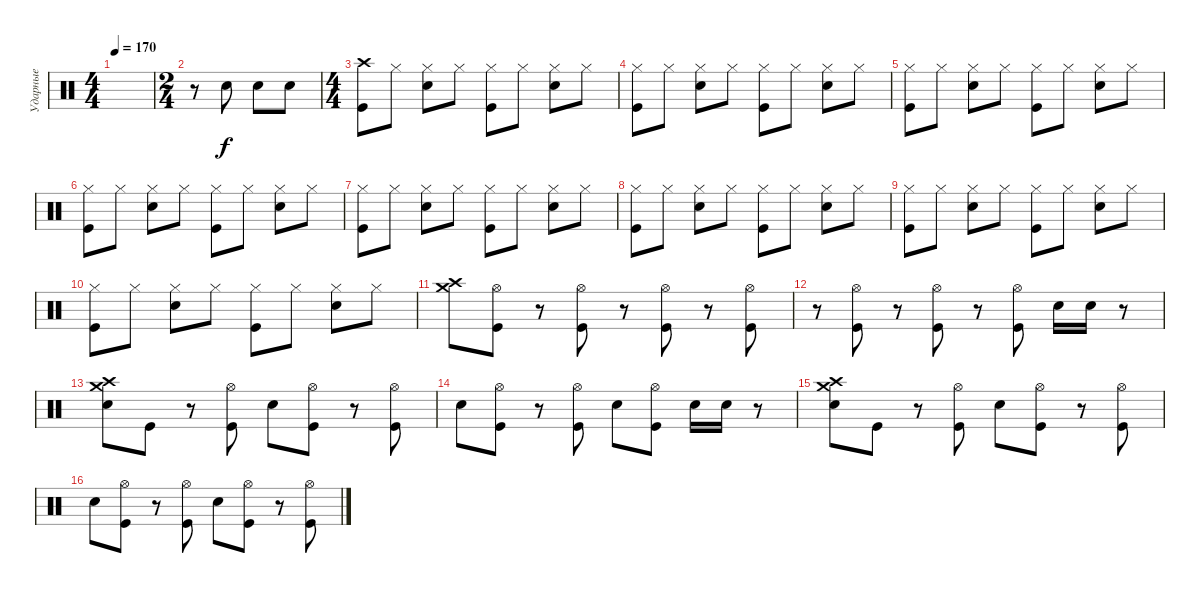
\track ("Ударные" "Ударные") {instrument percussion}
\staff {score}
\articulation defaults
\ts (4 4)
\tempo 170
\clef neutral
\ks c
|
\ts (2 4)
r.8 "Electric Snare (hit)".8 "Electric Snare (hit)".8 "Electric Snare (hit)".8 |
\ts (4 4)
("Kick (hit)" "Crash high (hit)").8 "Hi-Hat (closed)".8 ("Electric Snare (hit)" "Hi-Hat (closed)").8 "Hi-Hat (closed)".8 ("Kick (hit)" "Hi-Hat (closed)").8 "Hi-Hat (closed)".8 ("Electric Snare (hit)" "Hi-Hat (closed)").8 "Hi-Hat (closed)".8 |
("Kick (hit)" "Hi-Hat (closed)").8 "Hi-Hat (closed)".8 ("Electric Snare (hit)" "Hi-Hat (closed)").8 "Hi-Hat (closed)".8 ("Kick (hit)" "Hi-Hat (closed)").8 "Hi-Hat (closed)".8 ("Electric Snare (hit)" "Hi-Hat (closed)").8 "Hi-Hat (closed)".8 |
("Kick (hit)" "Hi-Hat (closed)").8 "Hi-Hat (closed)".8 ("Electric Snare (hit)" "Hi-Hat (closed)").8 "Hi-Hat (closed)".8 ("Kick (hit)" "Hi-Hat (closed)").8 "Hi-Hat (closed)".8 ("Electric Snare (hit)" "Hi-Hat (closed)").8 "Hi-Hat (closed)".8 |
("Kick (hit)" "Hi-Hat (closed)").8 "Hi-Hat (closed)".8 ("Electric Snare (hit)" "Hi-Hat (closed)").8 "Hi-Hat (closed)".8 ("Kick (hit)" "Hi-Hat (closed)").8 "Hi-Hat (closed)".8 ("Electric Snare (hit)" "Hi-Hat (closed)").8 "Hi-Hat (closed)".8 |
("Kick (hit)" "Hi-Hat (closed)").8 "Hi-Hat (closed)".8 ("Electric Snare (hit)" "Hi-Hat (closed)").8 "Hi-Hat (closed)".8 ("Kick (hit)" "Hi-Hat (closed)").8 "Hi-Hat (closed)".8 ("Electric Snare (hit)" "Hi-Hat (closed)").8 "Hi-Hat (closed)".8 |
("Kick (hit)" "Hi-Hat (closed)").8 "Hi-Hat (closed)".8 ("Electric Snare (hit)" "Hi-Hat (closed)").8 "Hi-Hat (closed)".8 ("Kick (hit)" "Hi-Hat (closed)").8 "Hi-Hat (closed)".8 ("Electric Snare (hit)" "Hi-Hat (closed)").8 "Hi-Hat (closed)".8 |
("Kick (hit)" "Hi-Hat (closed)").8 "Hi-Hat (closed)".8 ("Electric Snare (hit)" "Hi-Hat (closed)").8 "Hi-Hat (closed)".8 ("Kick (hit)" "Hi-Hat (closed)").8 "Hi-Hat (closed)".8 ("Electric Snare (hit)" "Hi-Hat (closed)").8 "Hi-Hat (closed)".8 |
("Kick (hit)" "Hi-Hat (closed)").8 "Hi-Hat (closed)".8 ("Electric Snare (hit)" "Hi-Hat (closed)").8 "Hi-Hat (closed)".8 ("Kick (hit)" "Hi-Hat (closed)").8 "Hi-Hat (closed)".8 ("Electric Snare (hit)" "Hi-Hat (closed)").8 "Hi-Hat (closed)".8 |
("Crash medium (hit)" "Crash high (hit)").8 ("Hi-Hat (open)" "Kick (hit)").8 r.8 ("Hi-Hat (open)" "Kick (hit)").8 r.8 ("Hi-Hat (open)" "Kick (hit)").8 r.8 ("Hi-Hat (open)" "Kick (hit)").8 |
r.8 ("Hi-Hat (open)" "Kick (hit)").8 r.8 ("Hi-Hat (open)" "Kick (hit)").8 r.8 ("Hi-Hat (open)" "Kick (hit)").8 "Electric Snare (hit)".16 "Electric Snare (hit)".16 r.8 |
("Crash high (hit)" "Crash medium (hit)" "Electric Snare (hit)").8 "Kick (hit)".8 r.8 ("Hi-Hat (open)" "Kick (hit)").8 "Electric Snare (hit)".8 ("Hi-Hat (open)" "Kick (hit)").8 r.8 ("Hi-Hat (open)" "Kick (hit)").8 |
"Electric Snare (hit)".8 ("Hi-Hat (open)" "Kick (hit)").8 r.8 ("Hi-Hat (open)" "Kick (hit)").8 "Electric Snare (hit)".8 ("Hi-Hat (open)" "Kick (hit)").8 "Electric Snare (hit)".16 "Electric Snare (hit)".16 r.8 |
("Crash high (hit)" "Crash medium (hit)" "Electric Snare (hit)").8 "Kick (hit)".8 r.8 ("Hi-Hat (open)" "Kick (hit)").8 "Electric Snare (hit)".8 ("Hi-Hat (open)" "Kick (hit)").8 r.8 ("Hi-Hat (open)" "Kick (hit)").8 |
"Electric Snare (hit)".8 ("Hi-Hat (open)" "Kick (hit)").8 r.8 ("Hi-Hat (open)" "Kick (hit)").8 "Electric Snare (hit)".8 ("Hi-Hat (open)" "Kick (hit)").8 r.8 ("Hi-Hat (open)" "Kick (hit)").8
